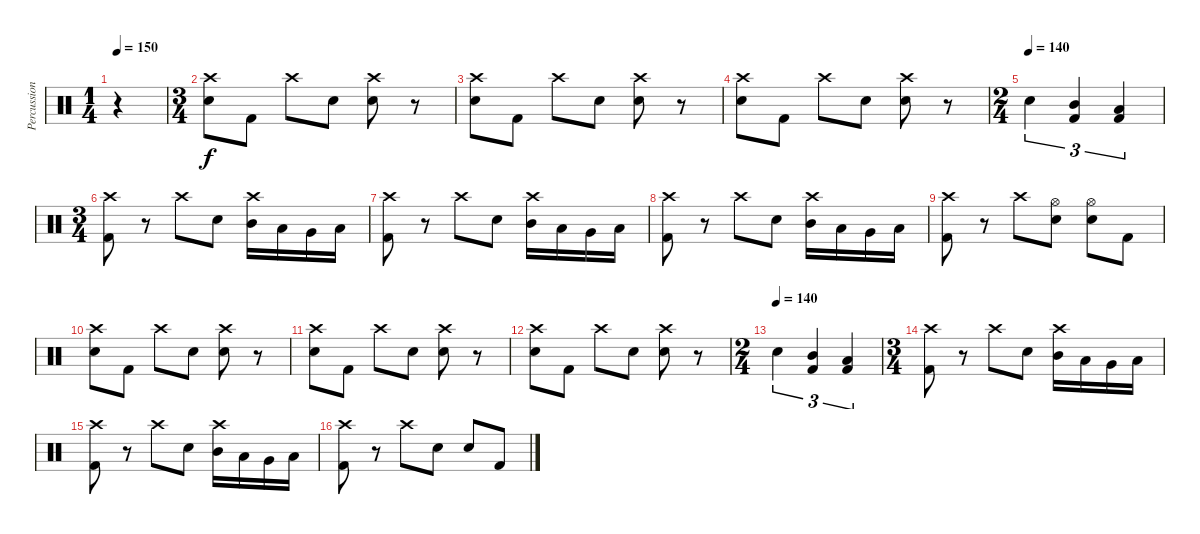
\track ("Percussion" "Percussion") {instrument percussion}
\staff {score}
\articulation defaults
\ts (1 4)
\tempo 150
\clef neutral
\ks c
r.4{dy f} |
\ts (3 4)
("Crash high (hit)" "Electric Snare (hit)").8 "Kick (hit) 2".8 "Crash high (hit)".8 "Electric Snare (hit)".8 ("Electric Snare (hit)" "Crash high (hit)").8 r.8 |
("Crash high (hit)" "Electric Snare (hit)").8 "Kick (hit) 2".8 "Crash high (hit)".8 "Electric Snare (hit)".8 ("Electric Snare (hit)" "Crash high (hit)").8 r.8 |
("Crash high (hit)" "Electric Snare (hit)").8 "Kick (hit) 2".8 "Crash high (hit)".8 "Electric Snare (hit)".8 ("Electric Snare (hit)" "Crash high (hit)").8 r.8 |
\ts (2 4)
\tempo (140)
"Electric Snare (hit)".4{tu (3 2)} ("Mid Tom (hit)" "Kick (hit) 2").4{tu (3 2)} ("Low Tom (hit)" "Kick (hit) 2").4{tu (3 2)} |
\ts (3 4)
("Kick (hit) 2" "Crash high (hit)").8 r.8 "Crash high (hit)".8 "Electric Snare (hit)".8 ("Mid Tom (hit)" "Crash high (hit)").16 "Low Tom (hit)".16 "Very Low Tom (hit)".16 "Low Floor Tom (hit)".16 |
("Kick (hit) 2" "Crash high (hit)").8 r.8 "Crash high (hit)".8 "Electric Snare (hit)".8 ("Mid Tom (hit)" "Crash high (hit)").16 "Low Tom (hit)".16 "Very Low Tom (hit)".16 "Low Floor Tom (hit)".16 |
("Kick (hit) 2" "Crash high (hit)").8 r.8 "Crash high (hit)".8 "Electric Snare (hit)".8 ("Mid Tom (hit)" "Crash high (hit)").16 "Low Tom (hit)".16 "Very Low Tom (hit)".16 "Low Floor Tom (hit)".16 |
("Kick (hit) 2" "Crash high (hit)").8 r.8 "Crash high (hit)".8 ("Electric Snare (hit)" "Hi-Hat (open)").8 ("Electric Snare (hit)" "Hi-Hat (open)").8 "Kick (hit) 2".8 |
("Crash high (hit)" "Electric Snare (hit)").8 "Kick (hit) 2".8 "Crash high (hit)".8 "Electric Snare (hit)".8 ("Electric Snare (hit)" "Crash high (hit)").8 r.8 |
("Crash high (hit)" "Electric Snare (hit)").8 "Kick (hit) 2".8 "Crash high (hit)".8 "Electric Snare (hit)".8 ("Electric Snare (hit)" "Crash high (hit)").8 r.8 |
("Crash high (hit)" "Electric Snare (hit)").8 "Kick (hit) 2".8 "Crash high (hit)".8 "Electric Snare (hit)".8 ("Electric Snare (hit)" "Crash high (hit)").8 r.8 |
\ts (2 4)
\tempo (140)
"Electric Snare (hit)".4{tu (3 2)} ("Mid Tom (hit)" "Kick (hit) 2").4{tu (3 2)} ("Low Tom (hit)" "Kick (hit) 2").4{tu (3 2)} |
\ts (3 4)
("Kick (hit) 2" "Crash high (hit)").8 r.8 "Crash high (hit)".8 "Electric Snare (hit)".8 ("Mid Tom (hit)" "Crash high (hit)").16 "Low Tom (hit)".16 "Very Low Tom (hit)".16 "Low Floor Tom (hit)".16 |
("Kick (hit) 2" "Crash high (hit)").8 r.8 "Crash high (hit)".8 "Electric Snare (hit)".8 ("Mid Tom (hit)" "Crash high (hit)").16 "Low Tom (hit)".16 "Very Low Tom (hit)".16 "Low Floor Tom (hit)".16 |
("Kick (hit) 2" "Crash high (hit)").8 r.8 "Crash high (hit)".8 "Electric Snare (hit)".8 "Electric Snare (hit)".8 "Kick (hit) 2".8
